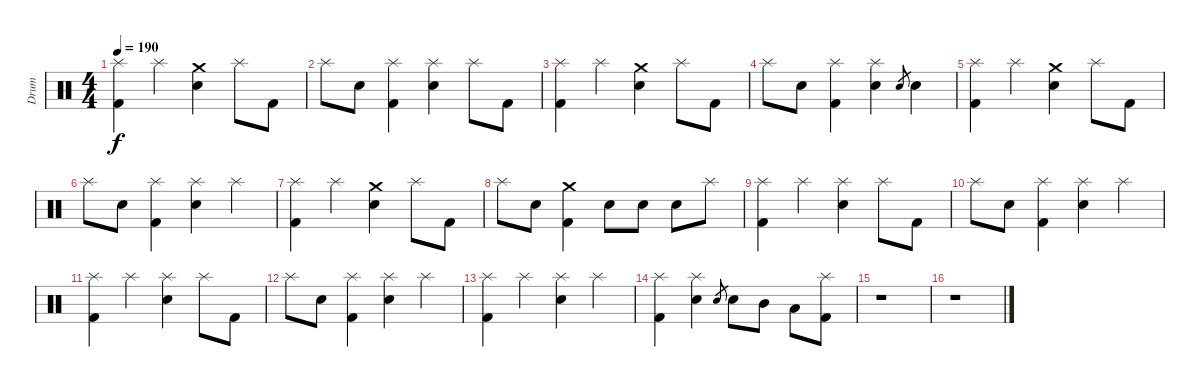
\track ("Drum" "Drum") {instrument percussion}
\staff {score}
\articulation defaults
\ts (4 4)
\tempo 190
\clef neutral
\ks c
("Splash (hit)" "Kick (hit) 2").4{dy f} "Splash (hit)".4 ("Crash medium (hit)" "Electric Snare (hit)").4 "Splash (hit)".8 "Kick (hit) 2".8 |
"Splash (hit)".8 "Electric Snare (hit)".8 ("Splash (hit)" "Kick (hit) 2").4 ("Splash (hit)" "Electric Snare (hit)").4 "Splash (hit)".8 "Kick (hit) 2".8 |
("Splash (hit)" "Kick (hit) 2").4 "Splash (hit)".4 ("Crash medium (hit)" "Electric Snare (hit)").4 "Splash (hit)".8 "Kick (hit) 2".8 |
"Splash (hit)".8 "Electric Snare (hit)".8 ("Splash (hit)" "Kick (hit) 2").4 ("Splash (hit)" "Electric Snare (hit)").4 "Snare (hit) 2"{sl}.8{gr} "Snare (hit) 2".4 |
("Splash (hit)" "Kick (hit) 2").4 "Splash (hit)".4 ("Crash medium (hit)" "Electric Snare (hit)").4 "Splash (hit)".8 "Kick (hit) 2".8 |
"Splash (hit)".8 "Electric Snare (hit)".8 ("Splash (hit)" "Kick (hit) 2").4 ("Splash (hit)" "Electric Snare (hit)").4 "Splash (hit)".4 |
("Splash (hit)" "Kick (hit) 2").4 "Splash (hit)".4 ("Crash medium (hit)" "Electric Snare (hit)").4 "Splash (hit)".8 "Kick (hit) 2".8 |
"Splash (hit)".8 "Electric Snare (hit)".8 ("Crash medium (hit)" "Kick (hit) 2").4 "Electric Snare (hit)".8 "Electric Snare (hit)".8 "Electric Snare (hit)".8 "Splash (hit)".8 |
("Splash (hit)" "Kick (hit) 2").4 "Splash (hit)".4 ("Splash (hit)" "Electric Snare (hit)").4 "Splash (hit)".8 "Kick (hit) 2".8 |
"Splash (hit)".8 "Electric Snare (hit)".8 ("Splash (hit)" "Kick (hit) 2").4 ("Splash (hit)" "Electric Snare (hit)").4 "Splash (hit)".4 |
("Splash (hit)" "Kick (hit) 2").4 "Splash (hit)".4 ("Splash (hit)" "Electric Snare (hit)").4 "Splash (hit)".8 "Kick (hit) 2".8 |
"Splash (hit)".8 "Electric Snare (hit)".8 ("Splash (hit)" "Kick (hit) 2").4 ("Splash (hit)" "Electric Snare (hit)").4 "Splash (hit)".4 |
("Splash (hit)" "Kick (hit) 2").4 "Splash (hit)".4 ("Splash (hit)" "Electric Snare (hit)").4 "Splash (hit)".4 |
("Splash (hit)" "Kick (hit) 2").4 ("Splash (hit)" "Electric Snare (hit)").4 "Electric Snare (hit)".8{gr} "Electric Snare (hit)".8 "Mid Tom (hit)".8 "Low Tom (hit)".8 ("Splash (hit)" "Kick (hit) 2").8 |
r.1 |
r.1
